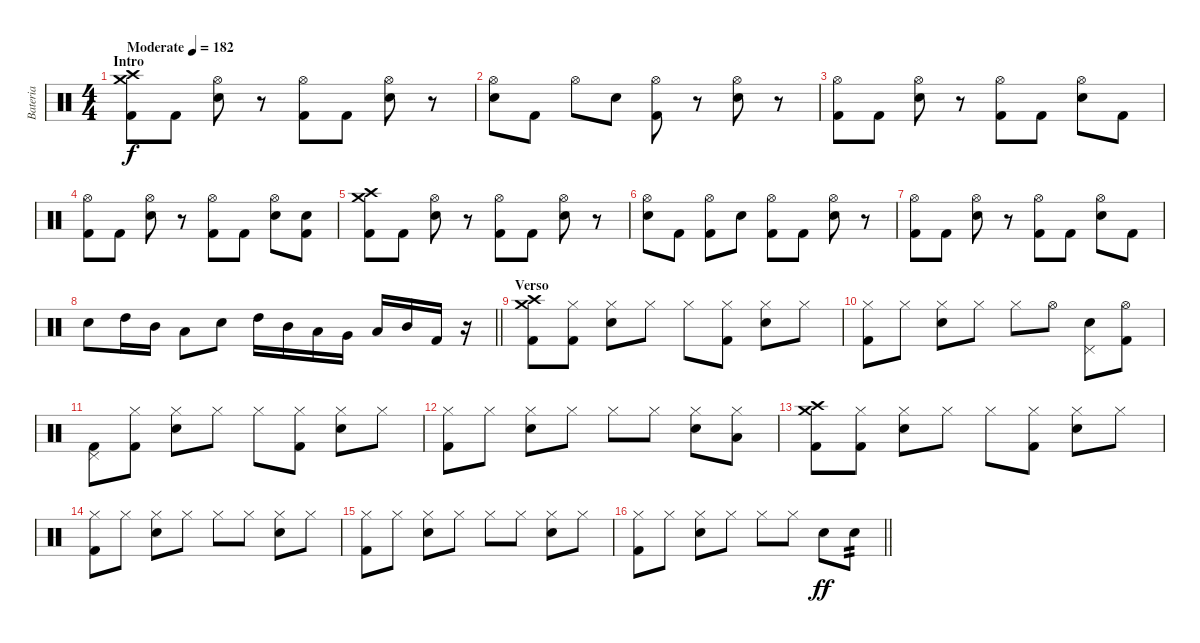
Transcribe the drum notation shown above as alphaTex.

\track ("Bateria" "Bateria") {instrument percussion}
\staff {score}
\articulation defaults
\ts (4 4)
\section ("" "Intro")
\tempo (182 "Moderate")
\clef neutral
\ks c
("Crash high (hit)" "Crash medium (hit)" "Kick (hit) 2").8{dy f} "Kick (hit) 2".8 ("Hi-Hat (open)" "Electric Snare (hit)").8 r.8 ("Hi-Hat (open)" "Kick (hit) 2").8 "Kick (hit) 2".8 ("Hi-Hat (open)" "Electric Snare (hit)").8 r.8 |
("Hi-Hat (open)" "Electric Snare (hit)").8 "Kick (hit) 2".8 "Hi-Hat (open)".8 "Electric Snare (hit)".8 ("Hi-Hat (open)" "Kick (hit) 2").8 r.8 ("Hi-Hat (open)" "Electric Snare (hit)").8 r.8 |
("Hi-Hat (open)" "Kick (hit) 2").8 "Kick (hit) 2".8 ("Hi-Hat (open)" "Electric Snare (hit)").8 r.8 ("Hi-Hat (open)" "Kick (hit) 2").8 "Kick (hit) 2".8 ("Hi-Hat (open)" "Electric Snare (hit)").8 "Kick (hit) 2".8 |
("Hi-Hat (open)" "Kick (hit) 2").8 "Kick (hit) 2".8 ("Hi-Hat (open)" "Electric Snare (hit)").8 r.8 ("Hi-Hat (open)" "Kick (hit) 2").8 "Kick (hit) 2".8 ("Hi-Hat (open)" "Electric Snare (hit)").8 ("Electric Snare (hit)" "Kick (hit) 2").8 |
("Crash high (hit)" "Crash medium (hit)" "Kick (hit) 2").8 "Kick (hit) 2".8 ("Hi-Hat (open)" "Electric Snare (hit)").8 r.8 ("Hi-Hat (open)" "Kick (hit) 2").8 "Kick (hit) 2".8 ("Hi-Hat (open)" "Electric Snare (hit)").8 r.8 |
("Hi-Hat (open)" "Electric Snare (hit)").8 "Kick (hit) 2".8 ("Hi-Hat (open)" "Kick (hit) 2").8 "Electric Snare (hit)".8 ("Hi-Hat (open)" "Kick (hit) 2").8 "Kick (hit) 2".8 ("Hi-Hat (open)" "Electric Snare (hit)").8 r.8 |
("Hi-Hat (open)" "Kick (hit) 2").8 "Kick (hit) 2".8 ("Hi-Hat (open)" "Electric Snare (hit)").8 r.8 ("Hi-Hat (open)" "Kick (hit) 2").8 "Kick (hit) 2".8 ("Hi-Hat (open)" "Electric Snare (hit)").8 "Kick (hit) 2".8 |
\barLineRight lightlight "Electric Snare (hit)".8 "High Tom (hit)".16 "Mid Tom (hit)".16 "Low Tom (hit)".8 "Electric Snare (hit)".8 "High Tom (hit)".16 "Mid Tom (hit)".16 "Low Tom (hit)".16 "Very Low Tom (hit)".16 "Low Tom (hit)".16 "Mid Tom (hit)".16 "Kick (hit) 2".16
r.16 |
\section ("" "Verso")
("Crash high (hit)" "Crash medium (hit)" "Kick (hit) 2").8 ("Hi-Hat (closed)" "Kick (hit) 2").8 ("Hi-Hat (closed)" "Electric Snare (hit)").8 "Hi-Hat (closed)".8 "Hi-Hat (closed)".8 ("Hi-Hat (closed)" "Kick (hit) 2").8 ("Hi-Hat (closed)" "Electric Snare (hit)").8 "Hi-Hat (closed)".8 |
("Hi-Hat (closed)" "Kick (hit) 2").8 "Hi-Hat (closed)".8 ("Hi-Hat (closed)" "Electric Snare (hit)").8 "Hi-Hat (closed)".8 "Hi-Hat (closed)".8 "Hi-Hat (open)".8 ("Pedal Hi-Hat (hit)" "Electric Snare (hit)").8 ("Hi-Hat (open)" "Kick (hit) 2").8 |
("Pedal Hi-Hat (hit)" "Kick (hit) 2").8 ("Hi-Hat (closed)" "Kick (hit) 2").8 ("Hi-Hat (closed)" "Electric Snare (hit)").8 "Hi-Hat (closed)".8 "Hi-Hat (closed)".8 ("Hi-Hat (closed)" "Kick (hit) 2").8 ("Hi-Hat (closed)" "Electric Snare (hit)").8 "Hi-Hat (closed)".8 |
("Hi-Hat (closed)" "Kick (hit) 2").8 "Hi-Hat (closed)".8 ("Hi-Hat (closed)" "Electric Snare (hit)").8 "Hi-Hat (closed)".8 "Hi-Hat (closed)".8 "Hi-Hat (closed)".8 ("Hi-Hat (closed)" "Electric Snare (hit)").8 ("Hi-Hat (closed)" "Low Tom (hit)").8 |
("Crash high (hit)" "Crash medium (hit)" "Kick (hit) 2").8 ("Hi-Hat (closed)" "Kick (hit) 2").8 ("Hi-Hat (closed)" "Electric Snare (hit)").8 "Hi-Hat (closed)".8 "Hi-Hat (closed)".8 ("Hi-Hat (closed)" "Kick (hit) 2").8 ("Hi-Hat (closed)" "Electric Snare (hit)").8 "Hi-Hat (closed)".8 |
("Hi-Hat (closed)" "Kick (hit) 2").8 "Hi-Hat (closed)".8 ("Hi-Hat (closed)" "Electric Snare (hit)").8 "Hi-Hat (closed)".8 "Hi-Hat (closed)".8 "Hi-Hat (closed)".8 ("Hi-Hat (closed)" "Electric Snare (hit)").8 "Hi-Hat (closed)".8 |
("Hi-Hat (closed)" "Kick (hit) 2").8 "Hi-Hat (closed)".8 ("Hi-Hat (closed)" "Electric Snare (hit)").8 "Hi-Hat (closed)".8 "Hi-Hat (closed)".8 "Hi-Hat (closed)".8 ("Hi-Hat (closed)" "Electric Snare (hit)").8 "Hi-Hat (closed)".8 |
\barLineRight lightlight
("Hi-Hat (closed)" "Kick (hit) 2").8 "Hi-Hat (closed)".8 ("Hi-Hat (closed)" "Electric Snare (hit)").8 "Hi-Hat (closed)".8 "Hi-Hat (closed)".8 "Hi-Hat (closed)".8 "Electric Snare (hit)".8{dy ff} "Electric Snare (hit)".8{tp 2}
